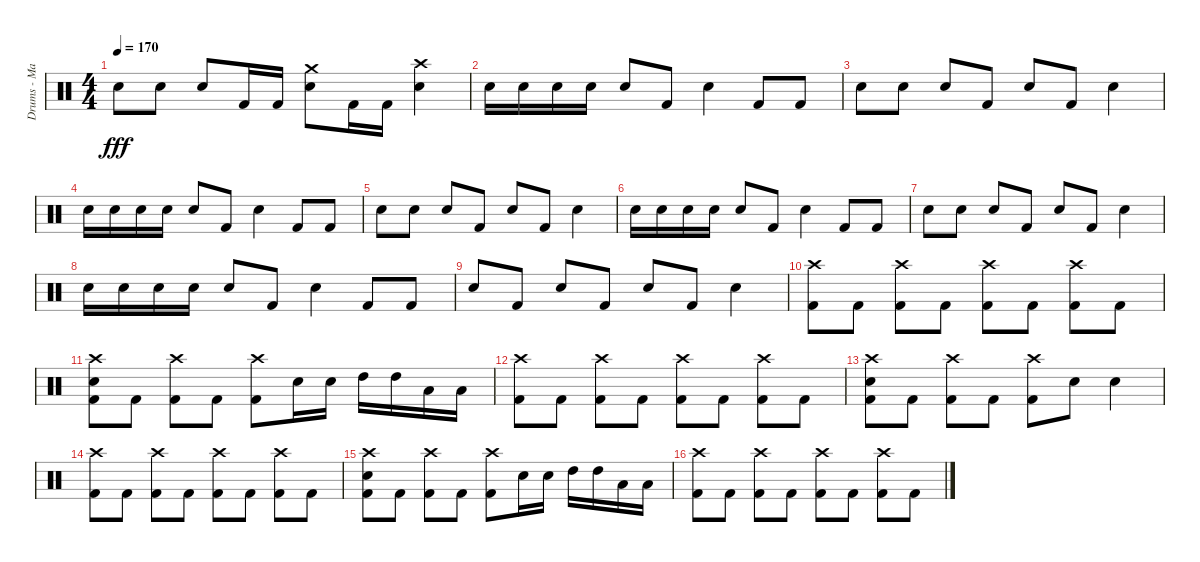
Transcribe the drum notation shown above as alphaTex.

\track ("Drums - Matt Traynor" "Drums - Ma") {instrument percussion}
\staff {score}
\articulation defaults
\ts (4 4)
\tempo 170
\clef neutral
\ks c "Snare (hit) 2".8{dy fff} "Snare (hit) 2".8 "Snare (hit) 2".8 "Kick (hit) 2".16 "Kick (hit) 2".16
("Crash medium (hit)" "Snare (hit) 2").8 "Kick (hit) 2".16 "Kick (hit) 2".16 ("Crash high (hit)" "Snare (hit) 2").4 |
"Snare (hit) 2".16 "Snare (hit) 2".16 "Snare (hit) 2".16 "Snare (hit) 2".16 "Snare (hit) 2".8 "Kick (hit) 2".8 "Snare (hit) 2".4 "Kick (hit) 2".8 "Kick (hit) 2".8 |
"Snare (hit) 2".8 "Snare (hit) 2".8 "Snare (hit) 2".8 "Kick (hit) 2".8 "Snare (hit) 2".8 "Kick (hit) 2".8 "Snare (hit) 2".4 |
"Snare (hit) 2".16 "Snare (hit) 2".16 "Snare (hit) 2".16 "Snare (hit) 2".16 "Snare (hit) 2".8 "Kick (hit) 2".8 "Snare (hit) 2".4 "Kick (hit) 2".8 "Kick (hit) 2".8 |
"Snare (hit) 2".8 "Snare (hit) 2".8 "Snare (hit) 2".8 "Kick (hit) 2".8 "Snare (hit) 2".8 "Kick (hit) 2".8 "Snare (hit) 2".4 |
"Snare (hit) 2".16 "Snare (hit) 2".16 "Snare (hit) 2".16 "Snare (hit) 2".16 "Snare (hit) 2".8 "Kick (hit) 2".8 "Snare (hit) 2".4 "Kick (hit) 2".8 "Kick (hit) 2".8 |
"Snare (hit) 2".8 "Snare (hit) 2".8 "Snare (hit) 2".8 "Kick (hit) 2".8 "Snare (hit) 2".8 "Kick (hit) 2".8 "Snare (hit) 2".4 |
"Snare (hit) 2".16 "Snare (hit) 2".16 "Snare (hit) 2".16 "Snare (hit) 2".16 "Snare (hit) 2".8 "Kick (hit) 2".8 "Snare (hit) 2".4 "Kick (hit) 2".8 "Kick (hit) 2".8 |
"Snare (hit) 2".8 "Kick (hit) 2".8 "Snare (hit) 2".8 "Kick (hit) 2".8 "Snare (hit) 2".8 "Kick (hit) 2".8 "Snare (hit) 2".4 |
("Crash high (hit)" "Kick (hit) 2").8 "Kick (hit) 2".8 ("Crash high (hit)" "Kick (hit) 2").8 "Kick (hit) 2".8 ("Crash high (hit)" "Kick (hit) 2").8 "Kick (hit) 2".8 ("Crash high (hit)" "Kick (hit) 2").8 "Kick (hit) 2".8 |
("Crash high (hit)" "Snare (hit) 2" "Kick (hit) 2").8 "Kick (hit) 2".8 ("Crash high (hit)" "Kick (hit) 2").8 "Kick (hit) 2".8 ("Crash high (hit)" "Kick (hit) 2").8 "Snare (hit) 2".16 "Snare (hit) 2".16 "High Tom (hit)".16 "High Tom (hit)".16 "Low Tom (hit)".16 "Low Tom (hit)".16 |
("Crash high (hit)" "Kick (hit) 2").8 "Kick (hit) 2".8 ("Crash high (hit)" "Kick (hit) 2").8 "Kick (hit) 2".8 ("Crash high (hit)" "Kick (hit) 2").8 "Kick (hit) 2".8 ("Crash high (hit)" "Kick (hit) 2").8 "Kick (hit) 2".8 |
("Crash high (hit)" "Snare (hit) 2" "Kick (hit) 2").8 "Kick (hit) 2".8 ("Crash high (hit)" "Kick (hit) 2").8 "Kick (hit) 2".8 ("Crash high (hit)" "Kick (hit) 2").8 "Snare (hit) 2".8 "Snare (hit) 2".4 |
("Crash high (hit)" "Kick (hit) 2").8 "Kick (hit) 2".8 ("Crash high (hit)" "Kick (hit) 2").8 "Kick (hit) 2".8 ("Crash high (hit)" "Kick (hit) 2").8 "Kick (hit) 2".8 ("Crash high (hit)" "Kick (hit) 2").8 "Kick (hit) 2".8 |
("Crash high (hit)" "Snare (hit) 2" "Kick (hit) 2").8 "Kick (hit) 2".8 ("Crash high (hit)" "Kick (hit) 2").8 "Kick (hit) 2".8 ("Crash high (hit)" "Kick (hit) 2").8 "Snare (hit) 2".16 "Snare (hit) 2".16 "High Tom (hit)".16 "High Tom (hit)".16 "Low Tom (hit)".16 "Low Tom (hit)".16 |
("Crash high (hit)" "Kick (hit) 2").8 "Kick (hit) 2".8 ("Crash high (hit)" "Kick (hit) 2").8 "Kick (hit) 2".8 ("Crash high (hit)" "Kick (hit) 2").8 "Kick (hit) 2".8 ("Crash high (hit)" "Kick (hit) 2").8 "Kick (hit) 2".8
